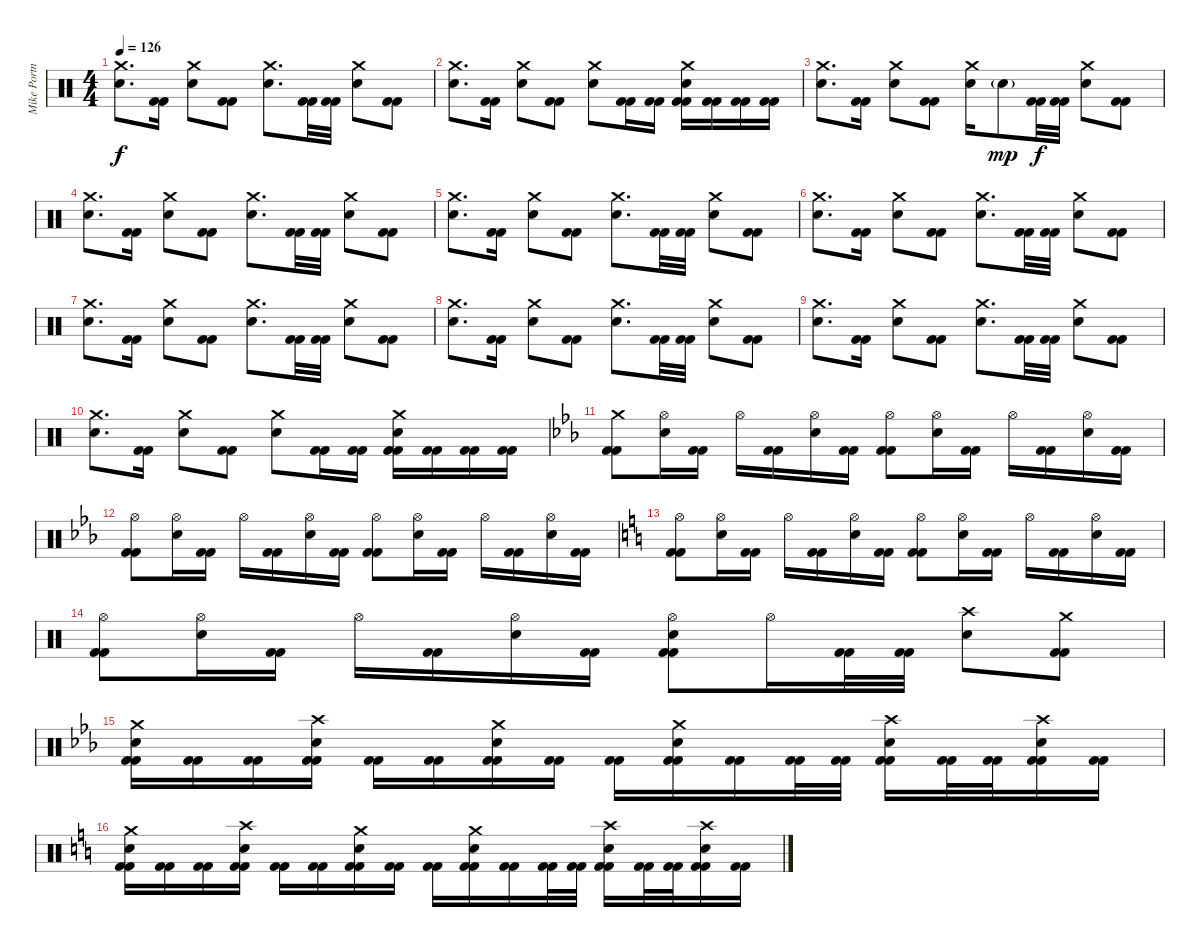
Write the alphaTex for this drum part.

\track ("Mike Portnoy" "Mike Portn") {instrument percussion}
\staff {score}
\articulation defaults
\ts (4 4)
\tempo 126
\clef neutral
\ks c
("Crash medium (hit)" "Electric Snare (hit)").8{d dy f} ("Kick (hit) 2" "Kick (hit) 2").16 ("Crash medium (hit)" "Electric Snare (hit)").8 ("Kick (hit) 2" "Kick (hit) 2").8 ("Crash medium (hit)" "Electric Snare (hit)").8{d} ("Kick (hit) 2" "Kick (hit) 2").32 ("Kick (hit) 2" "Kick (hit) 2").32 ("Crash medium (hit)" "Electric Snare (hit)").8 ("Kick (hit) 2" "Kick (hit) 2").8 |
("Crash medium (hit)" "Electric Snare (hit)").8{d} ("Kick (hit) 2" "Kick (hit) 2").16 ("Crash medium (hit)" "Electric Snare (hit)").8 ("Kick (hit) 2" "Kick (hit) 2").8 ("Crash medium (hit)" "Electric Snare (hit)").8 ("Kick (hit) 2" "Kick (hit) 2").16 ("Kick (hit) 2" "Kick (hit) 2").16 ("Crash medium (hit)" "Electric Snare (hit)" "Kick (hit) 2" "Kick (hit) 2").16 ("Kick (hit) 2" "Kick (hit) 2").16 ("Kick (hit) 2" "Kick (hit) 2").16 ("Kick (hit) 2" "Kick (hit) 2").16 |
("Crash medium (hit)" "Electric Snare (hit)").8{d} ("Kick (hit) 2" "Kick (hit) 2").16 ("Crash medium (hit)" "Electric Snare (hit)").8 ("Kick (hit) 2" "Kick (hit) 2").8 ("Crash medium (hit)" "Electric Snare (hit)").16 "Electric Snare (hit)"{g}.8{dy mp} ("Kick (hit) 2" "Kick (hit) 2").32{dy f} ("Kick (hit) 2" "Kick (hit) 2").32 ("Crash medium (hit)" "Electric Snare (hit)").8 ("Kick (hit) 2" "Kick (hit) 2").8 |
("Crash medium (hit)" "Electric Snare (hit)").8{d} ("Kick (hit) 2" "Kick (hit) 2").16 ("Crash medium (hit)" "Electric Snare (hit)").8 ("Kick (hit) 2" "Kick (hit) 2").8 ("Crash medium (hit)" "Electric Snare (hit)").8{d} ("Kick (hit) 2" "Kick (hit) 2").32 ("Kick (hit) 2" "Kick (hit) 2").32 ("Crash medium (hit)" "Electric Snare (hit)").8 ("Kick (hit) 2" "Kick (hit) 2").8 |
("Crash medium (hit)" "Electric Snare (hit)").8{d} ("Kick (hit) 2" "Kick (hit) 2").16 ("Crash medium (hit)" "Electric Snare (hit)").8 ("Kick (hit) 2" "Kick (hit) 2").8 ("Crash medium (hit)" "Electric Snare (hit)").8{d} ("Kick (hit) 2" "Kick (hit) 2").32 ("Kick (hit) 2" "Kick (hit) 2").32 ("Crash medium (hit)" "Electric Snare (hit)").8 ("Kick (hit) 2" "Kick (hit) 2").8 |
("Crash medium (hit)" "Electric Snare (hit)").8{d} ("Kick (hit) 2" "Kick (hit) 2").16 ("Crash medium (hit)" "Electric Snare (hit)").8 ("Kick (hit) 2" "Kick (hit) 2").8 ("Crash medium (hit)" "Electric Snare (hit)").8{d} ("Kick (hit) 2" "Kick (hit) 2").32 ("Kick (hit) 2" "Kick (hit) 2").32 ("Crash medium (hit)" "Electric Snare (hit)").8 ("Kick (hit) 2" "Kick (hit) 2").8 |
("Crash medium (hit)" "Electric Snare (hit)").8{d} ("Kick (hit) 2" "Kick (hit) 2").16 ("Crash medium (hit)" "Electric Snare (hit)").8 ("Kick (hit) 2" "Kick (hit) 2").8 ("Crash medium (hit)" "Electric Snare (hit)").8{d} ("Kick (hit) 2" "Kick (hit) 2").32 ("Kick (hit) 2" "Kick (hit) 2").32 ("Crash medium (hit)" "Electric Snare (hit)").8 ("Kick (hit) 2" "Kick (hit) 2").8 |
("Crash medium (hit)" "Electric Snare (hit)").8{d} ("Kick (hit) 2" "Kick (hit) 2").16 ("Crash medium (hit)" "Electric Snare (hit)").8 ("Kick (hit) 2" "Kick (hit) 2").8 ("Crash medium (hit)" "Electric Snare (hit)").8{d} ("Kick (hit) 2" "Kick (hit) 2").32 ("Kick (hit) 2" "Kick (hit) 2").32 ("Crash medium (hit)" "Electric Snare (hit)").8 ("Kick (hit) 2" "Kick (hit) 2").8 |
("Crash medium (hit)" "Electric Snare (hit)").8{d} ("Kick (hit) 2" "Kick (hit) 2").16 ("Crash medium (hit)" "Electric Snare (hit)").8 ("Kick (hit) 2" "Kick (hit) 2").8 ("Crash medium (hit)" "Electric Snare (hit)").8{d} ("Kick (hit) 2" "Kick (hit) 2").32 ("Kick (hit) 2" "Kick (hit) 2").32 ("Crash medium (hit)" "Electric Snare (hit)").8 ("Kick (hit) 2" "Kick (hit) 2").8 |
("Crash medium (hit)" "Electric Snare (hit)").8{d} ("Kick (hit) 2" "Kick (hit) 2").16 ("Crash medium (hit)" "Electric Snare (hit)").8 ("Kick (hit) 2" "Kick (hit) 2").8 ("Crash medium (hit)" "Electric Snare (hit)").8 ("Kick (hit) 2" "Kick (hit) 2").16 ("Kick (hit) 2" "Kick (hit) 2").16 ("Crash medium (hit)" "Electric Snare (hit)" "Kick (hit) 2" "Kick (hit) 2").16 ("Kick (hit) 2" "Kick (hit) 2").16 ("Kick (hit) 2" "Kick (hit) 2").16 ("Kick (hit) 2" "Kick (hit) 2").16 |
\ks cminor
("Crash medium (hit)" "Kick (hit) 2" "Kick (hit) 2").8 ("Hi-Hat (open)" "Electric Snare (hit)").16 ("Kick (hit) 2" "Kick (hit) 2").16 "Hi-Hat (open)".16 ("Kick (hit) 2" "Kick (hit) 2").16 ("Hi-Hat (open)" "Electric Snare (hit)").16 ("Kick (hit) 2" "Kick (hit) 2").16 ("Hi-Hat (open)" "Kick (hit) 2" "Kick (hit) 2").8 ("Hi-Hat (open)" "Electric Snare (hit)").16 ("Kick (hit) 2" "Kick (hit) 2").16 "Hi-Hat (open)".16 ("Kick (hit) 2" "Kick (hit) 2").16 ("Hi-Hat (open)" "Electric Snare (hit)").16 ("Kick (hit) 2" "Kick (hit) 2").16 |
("Hi-Hat (open)" "Kick (hit) 2" "Kick (hit) 2").8 ("Hi-Hat (open)" "Electric Snare (hit)").16 ("Kick (hit) 2" "Kick (hit) 2").16 "Hi-Hat (open)".16 ("Kick (hit) 2" "Kick (hit) 2").16 ("Hi-Hat (open)" "Electric Snare (hit)").16 ("Kick (hit) 2" "Kick (hit) 2").16 ("Hi-Hat (open)" "Kick (hit) 2" "Kick (hit) 2").8 ("Hi-Hat (open)" "Electric Snare (hit)").16 ("Kick (hit) 2" "Kick (hit) 2").16 "Hi-Hat (open)".16 ("Kick (hit) 2" "Kick (hit) 2").16 ("Hi-Hat (open)" "Electric Snare (hit)").16 ("Kick (hit) 2" "Kick (hit) 2").16 |
\ks c
("Hi-Hat (open)" "Kick (hit) 2" "Kick (hit) 2").8 ("Hi-Hat (open)" "Electric Snare (hit)").16 ("Kick (hit) 2" "Kick (hit) 2").16 "Hi-Hat (open)".16 ("Kick (hit) 2" "Kick (hit) 2").16 ("Hi-Hat (open)" "Electric Snare (hit)").16 ("Kick (hit) 2" "Kick (hit) 2").16 ("Hi-Hat (open)" "Kick (hit) 2" "Kick (hit) 2").8 ("Hi-Hat (open)" "Electric Snare (hit)").16 ("Kick (hit) 2" "Kick (hit) 2").16 "Hi-Hat (open)".16 ("Kick (hit) 2" "Kick (hit) 2").16 ("Hi-Hat (open)" "Electric Snare (hit)").16 ("Kick (hit) 2" "Kick (hit) 2").16 |
("Hi-Hat (open)" "Kick (hit) 2" "Kick (hit) 2").8 ("Hi-Hat (open)" "Electric Snare (hit)").16 ("Kick (hit) 2" "Kick (hit) 2").16 "Hi-Hat (open)".16 ("Kick (hit) 2" "Kick (hit) 2").16 ("Hi-Hat (open)" "Electric Snare (hit)").16 ("Kick (hit) 2" "Kick (hit) 2").16 ("Hi-Hat (open)" "Electric Snare (hit)" "Kick (hit) 2" "Kick (hit) 2").8 "Hi-Hat (open)".16 ("Kick (hit) 2" "Kick (hit) 2").32 ("Kick (hit) 2" "Kick (hit) 2").32 ("Crash high (hit)" "Electric Snare (hit)").8 ("Crash medium (hit)" "Kick (hit) 2" "Kick (hit) 2").8 |
\ks cminor
("Crash medium (hit)" "Electric Snare (hit)" "Kick (hit) 2" "Kick (hit) 2").16 ("Kick (hit) 2" "Kick (hit) 2").16 ("Kick (hit) 2" "Kick (hit) 2").16 ("Crash high (hit)" "Electric Snare (hit)" "Kick (hit) 2" "Kick (hit) 2").16 ("Kick (hit) 2" "Kick (hit) 2").16 ("Kick (hit) 2" "Kick (hit) 2").16 ("Crash medium (hit)" "Electric Snare (hit)" "Kick (hit) 2" "Kick (hit) 2").16 ("Kick (hit) 2" "Kick (hit) 2").16 ("Kick (hit) 2" "Kick (hit) 2").16 ("Crash medium (hit)" "Electric Snare (hit)" "Kick (hit) 2" "Kick (hit) 2").16 ("Kick (hit) 2" "Kick (hit) 2").16 ("Kick (hit) 2" "Kick (hit) 2").32 ("Kick (hit) 2" "Kick (hit) 2").32 ("Crash high (hit)" "Electric Snare (hit)" "Kick (hit) 2" "Kick (hit) 2").16 ("Kick (hit) 2" "Kick (hit) 2").32 ("Kick (hit) 2" "Kick (hit) 2").32 ("Crash high (hit)" "Electric Snare (hit)" "Kick (hit) 2" "Kick (hit) 2").16 ("Kick (hit) 2" "Kick (hit) 2").16 |
\ks c
("Crash medium (hit)" "Electric Snare (hit)" "Kick (hit) 2" "Kick (hit) 2").16 ("Kick (hit) 2" "Kick (hit) 2").16 ("Kick (hit) 2" "Kick (hit) 2").16 ("Crash high (hit)" "Electric Snare (hit)" "Kick (hit) 2" "Kick (hit) 2").16 ("Kick (hit) 2" "Kick (hit) 2").16 ("Kick (hit) 2" "Kick (hit) 2").16 ("Crash medium (hit)" "Electric Snare (hit)" "Kick (hit) 2" "Kick (hit) 2").16 ("Kick (hit) 2" "Kick (hit) 2").16 ("Kick (hit) 2" "Kick (hit) 2").16 ("Crash medium (hit)" "Electric Snare (hit)" "Kick (hit) 2" "Kick (hit) 2").16 ("Kick (hit) 2" "Kick (hit) 2").16 ("Kick (hit) 2" "Kick (hit) 2").32 ("Kick (hit) 2" "Kick (hit) 2").32 ("Crash high (hit)" "Electric Snare (hit)" "Kick (hit) 2" "Kick (hit) 2").16 ("Kick (hit) 2" "Kick (hit) 2").32 ("Kick (hit) 2" "Kick (hit) 2").32 ("Crash high (hit)" "Electric Snare (hit)" "Kick (hit) 2" "Kick (hit) 2").16 ("Kick (hit) 2" "Kick (hit) 2").16
